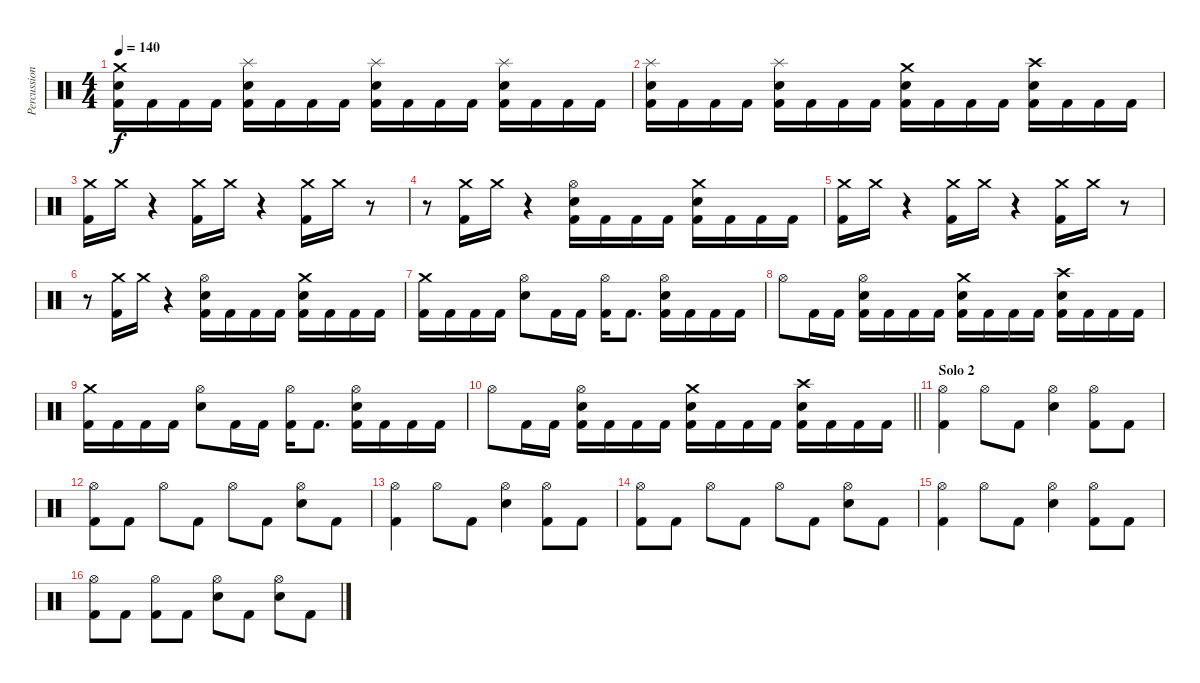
\track ("Percussion" "Percussion") {instrument percussion}
\staff {score}
\articulation defaults
\ts (4 4)
\tempo 140
\clef neutral
\ks c
("Kick (hit) 2" "Electric Snare (hit)" "Crash medium (hit)").16{dy f} "Kick (hit) 2".16 "Kick (hit) 2".16 "Kick (hit) 2".16 ("Kick (hit) 2" "Electric Snare (hit)" "Splash (hit)").16 "Kick (hit) 2".16 "Kick (hit) 2".16 "Kick (hit) 2".16 ("Kick (hit) 2" "Electric Snare (hit)" "Splash (hit)").16 "Kick (hit) 2".16 "Kick (hit) 2".16 "Kick (hit) 2".16 ("Kick (hit) 2" "Electric Snare (hit)" "Splash (hit)").16 "Kick (hit) 2".16 "Kick (hit) 2".16 "Kick (hit) 2".16 |
("Kick (hit) 2" "Electric Snare (hit)" "Splash (hit)").16 "Kick (hit) 2".16 "Kick (hit) 2".16 "Kick (hit) 2".16 ("Kick (hit) 2" "Electric Snare (hit)" "Splash (hit)").16 "Kick (hit) 2".16 "Kick (hit) 2".16 "Kick (hit) 2".16 ("Kick (hit) 2" "Electric Snare (hit)" "Crash medium (hit)").16 "Kick (hit) 2".16 "Kick (hit) 2".16 "Kick (hit) 2".16 ("Kick (hit) 2" "Electric Snare (hit)" "Crash high (hit)").16 "Kick (hit) 2".16 "Kick (hit) 2".16 "Kick (hit) 2".16 |
("Kick (hit) 2" "Crash medium (hit)").16 "Crash medium (hit)".16 r.4 ("Kick (hit) 2" "Crash medium (hit)").16 "Crash medium (hit)".16 r.4 ("Kick (hit) 2" "Crash medium (hit)").16 "Crash medium (hit)".16 r.8 |
r.8 ("Kick (hit) 2" "Crash medium (hit)").16 "Crash medium (hit)".16 r.4 ("Kick (hit) 2" "Electric Snare (hit)" "Hi-Hat (open)").16 "Kick (hit) 2".16 "Kick (hit) 2".16 "Kick (hit) 2".16 ("Kick (hit) 2" "Electric Snare (hit)" "Crash medium (hit)").16 "Kick (hit) 2".16 "Kick (hit) 2".16 "Kick (hit) 2".16 |
("Kick (hit) 2" "Crash medium (hit)").16 "Crash medium (hit)".16 r.4 ("Kick (hit) 2" "Crash medium (hit)").16 "Crash medium (hit)".16 r.4 ("Kick (hit) 2" "Crash medium (hit)").16 "Crash medium (hit)".16 r.8 |
r.8 ("Kick (hit) 2" "Crash medium (hit)").16 "Crash medium (hit)".16 r.4 ("Kick (hit) 2" "Electric Snare (hit)" "Hi-Hat (open)").16 "Kick (hit) 2".16 "Kick (hit) 2".16 "Kick (hit) 2".16 ("Kick (hit) 2" "Electric Snare (hit)" "Crash medium (hit)").16 "Kick (hit) 2".16 "Kick (hit) 2".16 "Kick (hit) 2".16 |
("Kick (hit) 2" "Crash medium (hit)").16 "Kick (hit) 2".16 "Kick (hit) 2".16 "Kick (hit) 2".16 ("Electric Snare (hit)" "Hi-Hat (open)").8 "Kick (hit) 2".16 "Kick (hit) 2".16 ("Kick (hit) 2" "Hi-Hat (open)").16 "Kick (hit) 2".8{d} ("Kick (hit) 2" "Electric Snare (hit)" "Hi-Hat (open)").16 "Kick (hit) 2".16 "Kick (hit) 2".16 "Kick (hit) 2".16 |
"Hi-Hat (open)".8 "Kick (hit) 2".16 "Kick (hit) 2".16 ("Kick (hit) 2" "Electric Snare (hit)" "Hi-Hat (open)").16 "Kick (hit) 2".16 "Kick (hit) 2".16 "Kick (hit) 2".16 ("Kick (hit) 2" "Electric Snare (hit)" "Crash medium (hit)").16 "Kick (hit) 2".16 "Kick (hit) 2".16 "Kick (hit) 2".16 ("Kick (hit) 2" "Electric Snare (hit)" "Crash high (hit)").16 "Kick (hit) 2".16 "Kick (hit) 2".16 "Kick (hit) 2".16 |
("Kick (hit) 2" "Crash medium (hit)").16 "Kick (hit) 2".16 "Kick (hit) 2".16 "Kick (hit) 2".16 ("Electric Snare (hit)" "Hi-Hat (open)").8 "Kick (hit) 2".16 "Kick (hit) 2".16 ("Kick (hit) 2" "Hi-Hat (open)").16 "Kick (hit) 2".8{d} ("Kick (hit) 2" "Electric Snare (hit)" "Hi-Hat (open)").16 "Kick (hit) 2".16 "Kick (hit) 2".16 "Kick (hit) 2".16 |
\barLineRight lightlight "Hi-Hat (open)".8 "Kick (hit) 2".16 "Kick (hit) 2".16
("Kick (hit) 2" "Electric Snare (hit)" "Hi-Hat (open)").16 "Kick (hit) 2".16 "Kick (hit) 2".16 "Kick (hit) 2".16 ("Kick (hit) 2" "Electric Snare (hit)" "Crash medium (hit)").16 "Kick (hit) 2".16 "Kick (hit) 2".16 "Kick (hit) 2".16 ("Kick (hit) 2" "Electric Snare (hit)" "Crash high (hit)").16 "Kick (hit) 2".16 "Kick (hit) 2".16 "Kick (hit) 2".16 |
\section ("" "Solo 2")
("Kick (hit) 2" "Hi-Hat (open)").4 "Hi-Hat (open)".8 "Kick (hit) 2".8 ("Electric Snare (hit)" "Hi-Hat (open)").4 ("Kick (hit) 2" "Hi-Hat (open)").8 "Kick (hit) 2".8 |
("Kick (hit) 2" "Hi-Hat (open)").8 "Kick (hit) 2".8 "Hi-Hat (open)".8 "Kick (hit) 2".8 "Hi-Hat (open)".8 "Kick (hit) 2".8 ("Electric Snare (hit)" "Hi-Hat (open)").8 "Kick (hit) 2".8 |
("Kick (hit) 2" "Hi-Hat (open)").4 "Hi-Hat (open)".8 "Kick (hit) 2".8 ("Electric Snare (hit)" "Hi-Hat (open)").4 ("Kick (hit) 2" "Hi-Hat (open)").8 "Kick (hit) 2".8 |
("Kick (hit) 2" "Hi-Hat (open)").8 "Kick (hit) 2".8 "Hi-Hat (open)".8 "Kick (hit) 2".8 "Hi-Hat (open)".8 "Kick (hit) 2".8 ("Electric Snare (hit)" "Hi-Hat (open)").8 "Kick (hit) 2".8 |
("Kick (hit) 2" "Hi-Hat (open)").4 "Hi-Hat (open)".8 "Kick (hit) 2".8 ("Electric Snare (hit)" "Hi-Hat (open)").4 ("Kick (hit) 2" "Hi-Hat (open)").8 "Kick (hit) 2".8 |
("Kick (hit) 2" "Hi-Hat (open)").8 "Kick (hit) 2".8 ("Kick (hit) 2" "Hi-Hat (open)").8 "Kick (hit) 2".8 ("Electric Snare (hit)" "Hi-Hat (open)").8 "Kick (hit) 2".8 ("Electric Snare (hit)" "Hi-Hat (open)").8 "Kick (hit) 2".8
